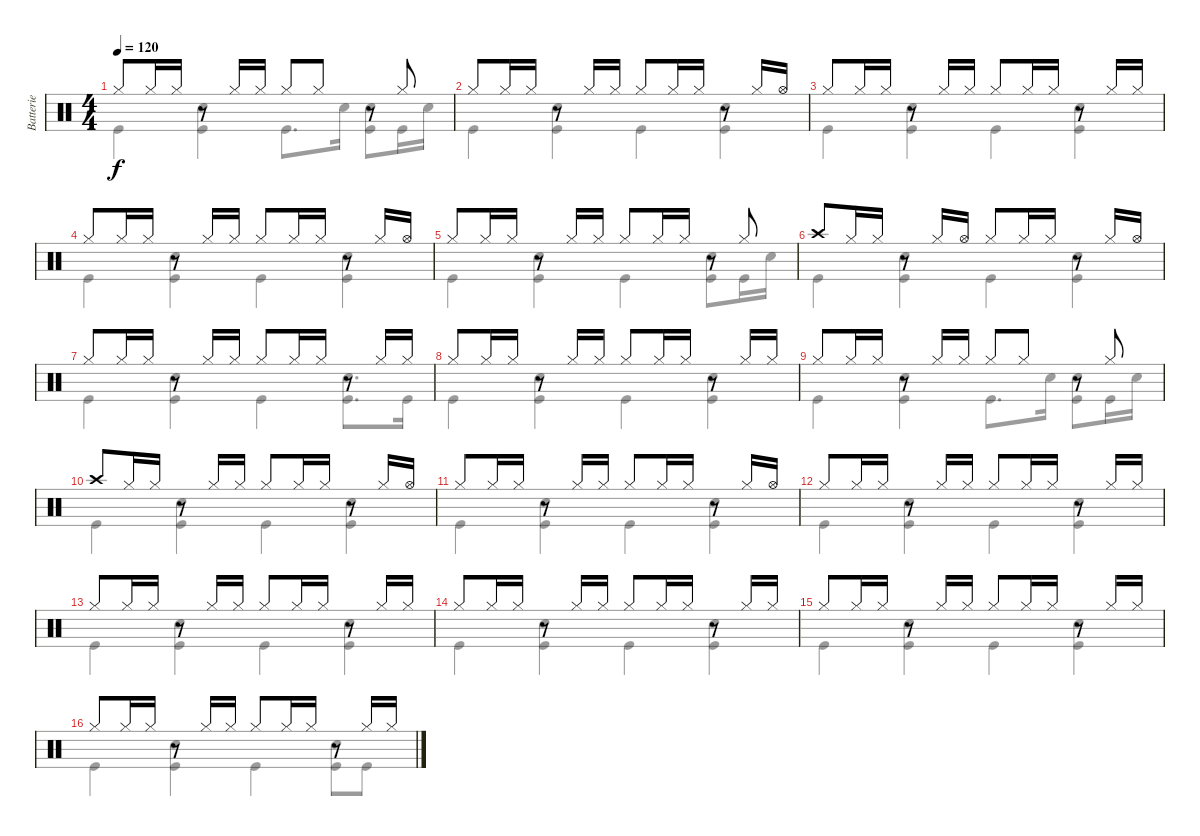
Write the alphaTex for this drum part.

\track ("Batterie" "Batterie") {instrument percussion}
\staff {score}
\articulation defaults
\voice
\ts (4 4)
\tempo 120
\clef neutral
\ks c "Hi-Hat (closed)".8{dy f} "Hi-Hat (closed)".16 "Hi-Hat (closed)".16
r.8 "Hi-Hat (closed)".16 "Hi-Hat (closed)".16 "Hi-Hat (closed)".8 "Hi-Hat (closed)".8 r.8 "Hi-Hat (closed)".8 |
"Hi-Hat (closed)".8 "Hi-Hat (closed)".16 "Hi-Hat (closed)".16 r.8 "Hi-Hat (closed)".16 "Hi-Hat (closed)".16 "Hi-Hat (closed)".8 "Hi-Hat (closed)".16 "Hi-Hat (closed)".16 r.8 "Hi-Hat (closed)".16 "Hi-Hat (open)".16 |
"Hi-Hat (closed)".8 "Hi-Hat (closed)".16 "Hi-Hat (closed)".16 r.8 "Hi-Hat (closed)".16 "Hi-Hat (closed)".16 "Hi-Hat (closed)".8 "Hi-Hat (closed)".16 "Hi-Hat (closed)".16 r.8 "Hi-Hat (closed)".16 "Hi-Hat (closed)".16 |
"Hi-Hat (closed)".8 "Hi-Hat (closed)".16 "Hi-Hat (closed)".16 r.8 "Hi-Hat (closed)".16 "Hi-Hat (closed)".16 "Hi-Hat (closed)".8 "Hi-Hat (closed)".16 "Hi-Hat (closed)".16 r.8 "Hi-Hat (closed)".16 "Hi-Hat (open)".16 |
"Hi-Hat (closed)".8 "Hi-Hat (closed)".16 "Hi-Hat (closed)".16 r.8 "Hi-Hat (closed)".16 "Hi-Hat (closed)".16 "Hi-Hat (closed)".8 "Hi-Hat (closed)".16 "Hi-Hat (closed)".16 r.8 "Hi-Hat (closed)".8 |
"Crash high (hit)".8 "Hi-Hat (closed)".16 "Hi-Hat (closed)".16 r.8 "Hi-Hat (closed)".16 "Hi-Hat (open)".16 "Hi-Hat (closed)".8 "Hi-Hat (closed)".16 "Hi-Hat (closed)".16 r.8 "Hi-Hat (closed)".16 "Hi-Hat (open)".16 |
"Hi-Hat (closed)".8 "Hi-Hat (closed)".16 "Hi-Hat (closed)".16 r.8 "Hi-Hat (closed)".16 "Hi-Hat (closed)".16 "Hi-Hat (closed)".8 "Hi-Hat (closed)".16 "Hi-Hat (closed)".16 r.8 "Hi-Hat (closed)".16 "Hi-Hat (closed)".16 |
"Hi-Hat (closed)".8 "Hi-Hat (closed)".16 "Hi-Hat (closed)".16 r.8 "Hi-Hat (closed)".16 "Hi-Hat (closed)".16 "Hi-Hat (closed)".8 "Hi-Hat (closed)".16 "Hi-Hat (closed)".16 r.8 "Hi-Hat (closed)".16 "Hi-Hat (closed)".16 |
"Hi-Hat (closed)".8 "Hi-Hat (closed)".16 "Hi-Hat (closed)".16 r.8 "Hi-Hat (closed)".16 "Hi-Hat (closed)".16 "Hi-Hat (closed)".8 "Hi-Hat (closed)".8 r.8 "Hi-Hat (closed)".8 |
"Crash high (hit)".8 "Hi-Hat (closed)".16 "Hi-Hat (closed)".16 r.8 "Hi-Hat (closed)".16 "Hi-Hat (closed)".16 "Hi-Hat (closed)".8 "Hi-Hat (closed)".16 "Hi-Hat (closed)".16 r.8 "Hi-Hat (closed)".16 "Hi-Hat (open)".16 |
"Hi-Hat (closed)".8 "Hi-Hat (closed)".16 "Hi-Hat (closed)".16 r.8 "Hi-Hat (closed)".16 "Hi-Hat (closed)".16 "Hi-Hat (closed)".8 "Hi-Hat (closed)".16 "Hi-Hat (closed)".16 r.8 "Hi-Hat (closed)".16 "Hi-Hat (open)".16 |
"Hi-Hat (closed)".8 "Hi-Hat (closed)".16 "Hi-Hat (closed)".16 r.8 "Hi-Hat (closed)".16 "Hi-Hat (closed)".16 "Hi-Hat (closed)".8 "Hi-Hat (closed)".16 "Hi-Hat (closed)".16 r.8 "Hi-Hat (closed)".16 "Hi-Hat (closed)".16 |
"Hi-Hat (closed)".8 "Hi-Hat (closed)".16 "Hi-Hat (closed)".16 r.8 "Hi-Hat (closed)".16 "Hi-Hat (closed)".16 "Hi-Hat (closed)".8 "Hi-Hat (closed)".16 "Hi-Hat (closed)".16 r.8 "Hi-Hat (closed)".16 "Hi-Hat (closed)".16 |
"Hi-Hat (closed)".8 "Hi-Hat (closed)".16 "Hi-Hat (closed)".16 r.8 "Hi-Hat (closed)".16 "Hi-Hat (closed)".16 "Hi-Hat (closed)".8 "Hi-Hat (closed)".16 "Hi-Hat (closed)".16 r.8 "Hi-Hat (closed)".16 "Hi-Hat (closed)".16 |
"Hi-Hat (closed)".8 "Hi-Hat (closed)".16 "Hi-Hat (closed)".16 r.8 "Hi-Hat (closed)".16 "Hi-Hat (closed)".16 "Hi-Hat (closed)".8 "Hi-Hat (closed)".16 "Hi-Hat (closed)".16 r.8 "Hi-Hat (closed)".16 "Hi-Hat (closed)".16 |
"Hi-Hat (closed)".8 "Hi-Hat (closed)".16 "Hi-Hat (closed)".16 r.8 "Hi-Hat (closed)".16 "Hi-Hat (closed)".16 "Hi-Hat (closed)".8 "Hi-Hat (closed)".16 "Hi-Hat (closed)".16 r.8 "Hi-Hat (closed)".16 "Hi-Hat (closed)".16
\voice
\clef neutral
\ottava regular
\simile none
\ks c "Kick (hit)".4{dy f}
("Snare (hit) 2" "Kick (hit)").4 "Kick (hit)".8{d} "Snare (hit) 2".16 ("Snare (hit) 2" "Kick (hit)").8 "Kick (hit)".16 "Snare (hit) 2".16 |
"Kick (hit)".4 ("Snare (hit) 2" "Kick (hit)").4 "Kick (hit)".4 ("Snare (hit) 2" "Kick (hit)").4 |
"Kick (hit)".4 ("Snare (hit) 2" "Kick (hit)").4 "Kick (hit)".4 ("Snare (hit) 2" "Kick (hit)").4 |
"Kick (hit)".4 ("Snare (hit) 2" "Kick (hit)").4 "Kick (hit)".4 ("Snare (hit) 2" "Kick (hit)").4 |
"Kick (hit)".4 ("Snare (hit) 2" "Kick (hit)").4 "Kick (hit)".4 ("Snare (hit) 2" "Kick (hit)").8 "Kick (hit)".16 "Snare (hit) 2".16 |
"Kick (hit)".4 ("Snare (hit) 2" "Kick (hit)").4 "Kick (hit)".4 ("Snare (hit) 2" "Kick (hit)").4 |
"Kick (hit)".4 ("Snare (hit) 2" "Kick (hit)").4 "Kick (hit)".4 ("Snare (hit) 2" "Kick (hit)").8{d} "Kick (hit)".16 |
"Kick (hit)".4 ("Snare (hit) 2" "Kick (hit)").4 "Kick (hit)".4 ("Snare (hit) 2" "Kick (hit)").4 |
"Kick (hit)".4 ("Snare (hit) 2" "Kick (hit)").4 "Kick (hit)".8{d} "Snare (hit) 2".16 ("Snare (hit) 2" "Kick (hit)").8 "Kick (hit)".16 "Snare (hit) 2".16 |
"Kick (hit)".4 ("Snare (hit) 2" "Kick (hit)").4 "Kick (hit)".4 ("Snare (hit) 2" "Kick (hit)").4 |
"Kick (hit)".4 ("Snare (hit) 2" "Kick (hit)").4 "Kick (hit)".4 ("Snare (hit) 2" "Kick (hit)").4 |
"Kick (hit)".4 ("Snare (hit) 2" "Kick (hit)").4 "Kick (hit)".4 ("Snare (hit) 2" "Kick (hit)").4 |
"Kick (hit)".4 ("Snare (hit) 2" "Kick (hit)").4 "Kick (hit)".4 ("Snare (hit) 2" "Kick (hit)").4 |
"Kick (hit)".4 ("Snare (hit) 2" "Kick (hit)").4 "Kick (hit)".4 ("Snare (hit) 2" "Kick (hit)").4 |
"Kick (hit)".4 ("Snare (hit) 2" "Kick (hit)").4 "Kick (hit)".4 ("Snare (hit) 2" "Kick (hit)").4 |
"Kick (hit)".4 ("Snare (hit) 2" "Kick (hit)").4 "Kick (hit)".4 ("Snare (hit) 2" "Kick (hit)").8 "Kick (hit)".8
